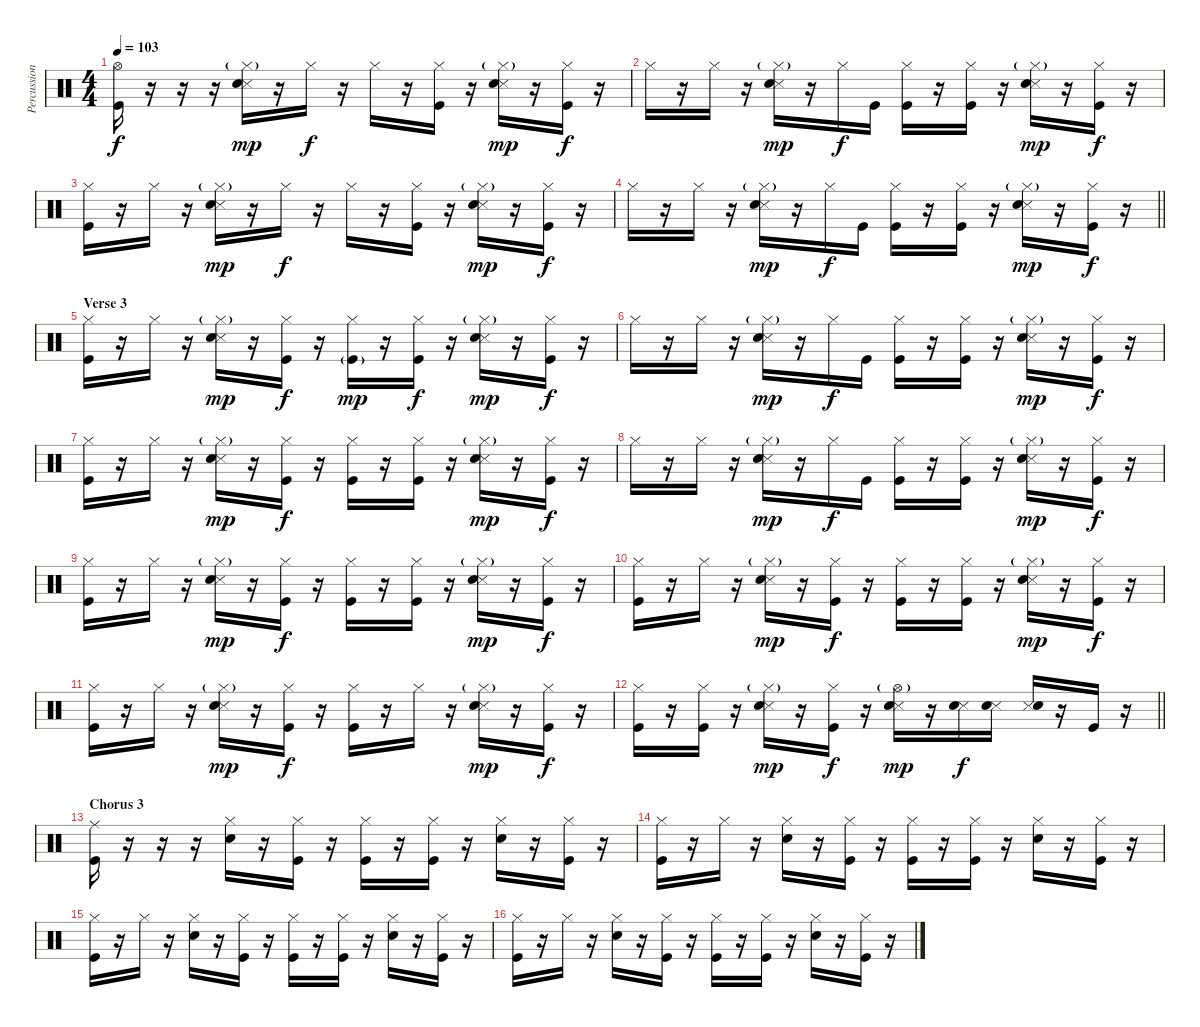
\track ("Percussion" "Percussion") {instrument percussion}
\staff {score}
\articulation defaults
\ts (4 4)
\tempo 103
\clef neutral
\ks c
("Hi-Hat (open)" "Kick (hit)").16{dy f} r.16 r.16 r.16 ("Hi-Hat (closed)"{g} "Snare (side stick) 3" "Snare (hit) 2").16{dy mp} r.16 "Hi-Hat (closed)".16{dy f} r.16 "Hi-Hat (closed)".16 r.16 ("Hi-Hat (closed)" "Kick (hit)").16 r.16 ("Hi-Hat (closed)"{g} "Snare (side stick) 3" "Snare (hit) 2").16{dy mp} r.16 ("Hi-Hat (closed)" "Kick (hit)").16{dy f} r.16 |
"Hi-Hat (closed)".16 r.16 "Hi-Hat (closed)".16 r.16 ("Hi-Hat (closed)"{g} "Snare (side stick) 3" "Snare (hit) 2").16{dy mp} r.16 "Hi-Hat (closed)".16{dy f} "Kick (hit)".16 ("Hi-Hat (closed)" "Kick (hit)").16 r.16 ("Hi-Hat (closed)" "Kick (hit)").16 r.16 ("Hi-Hat (closed)"{g} "Snare (side stick) 3" "Snare (hit) 2").16{dy mp} r.16 ("Hi-Hat (closed)" "Kick (hit)").16{dy f} r.16 |
("Hi-Hat (closed)" "Kick (hit)").16 r.16 "Hi-Hat (closed)".16 r.16 ("Hi-Hat (closed)"{g} "Snare (side stick) 3" "Snare (hit) 2").16{dy mp} r.16 "Hi-Hat (closed)".16{dy f} r.16 "Hi-Hat (closed)".16 r.16 ("Hi-Hat (closed)" "Kick (hit)").16 r.16 ("Hi-Hat (closed)"{g} "Snare (side stick) 3" "Snare (hit) 2").16{dy mp} r.16 ("Hi-Hat (closed)" "Kick (hit)").16{dy f} r.16 |
\barLineRight lightlight "Hi-Hat (closed)".16
r.16 "Hi-Hat (closed)".16 r.16 ("Hi-Hat (closed)"{g} "Snare (side stick) 3" "Snare (hit) 2").16{dy mp} r.16 "Hi-Hat (closed)".16{dy f} "Kick (hit)".16 ("Hi-Hat (closed)" "Kick (hit)").16 r.16 ("Hi-Hat (closed)" "Kick (hit)").16 r.16 ("Hi-Hat (closed)"{g} "Snare (side stick) 3" "Snare (hit) 2").16{dy mp} r.16 ("Hi-Hat (closed)" "Kick (hit)").16{dy f} r.16 |
\section ("" "Verse 3")
("Hi-Hat (closed)" "Kick (hit)").16 r.16 "Hi-Hat (closed)".16 r.16 ("Hi-Hat (closed)"{g} "Snare (side stick) 3" "Snare (hit) 2").16{dy mp} r.16 ("Hi-Hat (closed)" "Kick (hit)").16{dy f} r.16 ("Hi-Hat (closed)" "Kick (hit)"{g}).16{dy mp} r.16 ("Hi-Hat (closed)" "Kick (hit)").16{dy f} r.16 ("Hi-Hat (closed)"{g} "Snare (side stick) 3" "Snare (hit) 2").16{dy mp} r.16 ("Hi-Hat (closed)" "Kick (hit)").16{dy f} r.16 |
"Hi-Hat (closed)".16 r.16 "Hi-Hat (closed)".16 r.16 ("Hi-Hat (closed)"{g} "Snare (side stick) 3" "Snare (hit) 2").16{dy mp} r.16 "Hi-Hat (closed)".16{dy f} "Kick (hit)".16 ("Hi-Hat (closed)" "Kick (hit)").16 r.16 ("Hi-Hat (closed)" "Kick (hit)").16 r.16 ("Hi-Hat (closed)"{g} "Snare (side stick) 3" "Snare (hit) 2").16{dy mp} r.16 ("Hi-Hat (closed)" "Kick (hit)").16{dy f} r.16 |
("Hi-Hat (closed)" "Kick (hit)").16 r.16 "Hi-Hat (closed)".16 r.16 ("Hi-Hat (closed)"{g} "Snare (side stick) 3" "Snare (hit) 2").16{dy mp} r.16 ("Hi-Hat (closed)" "Kick (hit)").16{dy f} r.16 ("Hi-Hat (closed)" "Kick (hit)").16 r.16 ("Hi-Hat (closed)" "Kick (hit)").16 r.16 ("Hi-Hat (closed)"{g} "Snare (side stick) 3" "Snare (hit) 2").16{dy mp} r.16 ("Hi-Hat (closed)" "Kick (hit)").16{dy f} r.16 |
"Hi-Hat (closed)".16 r.16 "Hi-Hat (closed)".16 r.16 ("Hi-Hat (closed)"{g} "Snare (side stick) 3" "Snare (hit) 2").16{dy mp} r.16 "Hi-Hat (closed)".16{dy f} "Kick (hit)".16 ("Hi-Hat (closed)" "Kick (hit)").16 r.16 ("Hi-Hat (closed)" "Kick (hit)").16 r.16 ("Hi-Hat (closed)"{g} "Snare (side stick) 3" "Snare (hit) 2").16{dy mp} r.16 ("Hi-Hat (closed)" "Kick (hit)").16{dy f} r.16 |
("Hi-Hat (closed)" "Kick (hit)").16 r.16 "Hi-Hat (closed)".16 r.16 ("Hi-Hat (closed)"{g} "Snare (side stick) 3" "Snare (hit) 2").16{dy mp} r.16 ("Hi-Hat (closed)" "Kick (hit)").16{dy f} r.16 ("Hi-Hat (closed)" "Kick (hit)").16 r.16 ("Hi-Hat (closed)" "Kick (hit)").16 r.16 ("Hi-Hat (closed)"{g} "Snare (side stick) 3" "Snare (hit) 2").16{dy mp} r.16 ("Hi-Hat (closed)" "Kick (hit)").16{dy f} r.16 |
("Hi-Hat (closed)" "Kick (hit)").16 r.16 "Hi-Hat (closed)".16 r.16 ("Hi-Hat (closed)"{g} "Snare (side stick) 3" "Snare (hit) 2").16{dy mp} r.16 ("Hi-Hat (closed)" "Kick (hit)").16{dy f} r.16 ("Hi-Hat (closed)" "Kick (hit)").16 r.16 ("Hi-Hat (closed)" "Kick (hit)").16 r.16 ("Hi-Hat (closed)"{g} "Snare (side stick) 3" "Snare (hit) 2").16{dy mp} r.16 ("Hi-Hat (closed)" "Kick (hit)").16{dy f} r.16 |
("Hi-Hat (closed)" "Kick (hit)").16 r.16 "Hi-Hat (closed)".16 r.16 ("Hi-Hat (closed)"{g} "Snare (side stick) 3" "Snare (hit) 2").16{dy mp} r.16 ("Hi-Hat (closed)" "Kick (hit)").16{dy f} r.16 ("Hi-Hat (closed)" "Kick (hit)").16 r.16 "Hi-Hat (closed)".16 r.16 ("Hi-Hat (closed)"{g} "Snare (side stick) 3" "Snare (hit) 2").16{dy mp} r.16 ("Hi-Hat (closed)" "Kick (hit)").16{dy f} r.16 |
\barLineRight lightlight
("Hi-Hat (closed)" "Kick (hit)").16 r.16 ("Hi-Hat (closed)" "Kick (hit)").16 r.16 ("Hi-Hat (closed)"{g} "Snare (side stick) 3" "Snare (hit) 2").16{dy mp} r.16 ("Hi-Hat (closed)" "Kick (hit)").16{dy f} r.16 ("Hi-Hat (open)"{g} "Snare (side stick) 3" "Snare (hit) 2").16{dy mp} r.16 ("Snare (side stick) 3" "Snare (hit) 2").16{dy f} ("Snare (side stick) 3" "Snare (hit) 2").16 ("Snare (side stick) 3" "Snare (hit) 2").16 r.16 "Kick (hit)".16 r.16 |
\section ("" "Chorus 3")
("Ride (middle)" "Kick (hit)").16 r.16 r.16 r.16 ("Hi-Hat (closed)" "Snare (hit) 2").16 r.16 ("Hi-Hat (closed)" "Kick (hit)").16 r.16 ("Hi-Hat (closed)" "Kick (hit)").16 r.16 ("Hi-Hat (closed)" "Kick (hit)").16 r.16 ("Hi-Hat (closed)" "Snare (hit) 2").16 r.16 ("Hi-Hat (closed)" "Kick (hit)").16 r.16 |
("Hi-Hat (closed)" "Kick (hit)").16 r.16 "Hi-Hat (closed)".16 r.16 ("Hi-Hat (closed)" "Snare (hit) 2").16 r.16 ("Hi-Hat (closed)" "Kick (hit)").16 r.16 ("Hi-Hat (closed)" "Kick (hit)").16 r.16 ("Hi-Hat (closed)" "Kick (hit)").16 r.16 ("Hi-Hat (closed)" "Snare (hit) 2").16 r.16 ("Hi-Hat (closed)" "Kick (hit)").16 r.16 |
("Hi-Hat (closed)" "Kick (hit)").16 r.16 "Hi-Hat (closed)".16 r.16 ("Hi-Hat (closed)" "Snare (hit) 2").16 r.16 ("Hi-Hat (closed)" "Kick (hit)").16 r.16 ("Hi-Hat (closed)" "Kick (hit)").16 r.16 ("Hi-Hat (closed)" "Kick (hit)").16 r.16 ("Hi-Hat (closed)" "Snare (hit) 2").16 r.16 ("Hi-Hat (closed)" "Kick (hit)").16 r.16 |
("Hi-Hat (closed)" "Kick (hit)").16 r.16 "Hi-Hat (closed)".16 r.16 ("Hi-Hat (closed)" "Snare (hit) 2").16 r.16 ("Hi-Hat (closed)" "Kick (hit)").16 r.16 ("Hi-Hat (closed)" "Kick (hit)").16 r.16 ("Hi-Hat (closed)" "Kick (hit)").16 r.16 ("Hi-Hat (closed)" "Snare (hit) 2").16 r.16 ("Hi-Hat (closed)" "Kick (hit)").16 r.16
